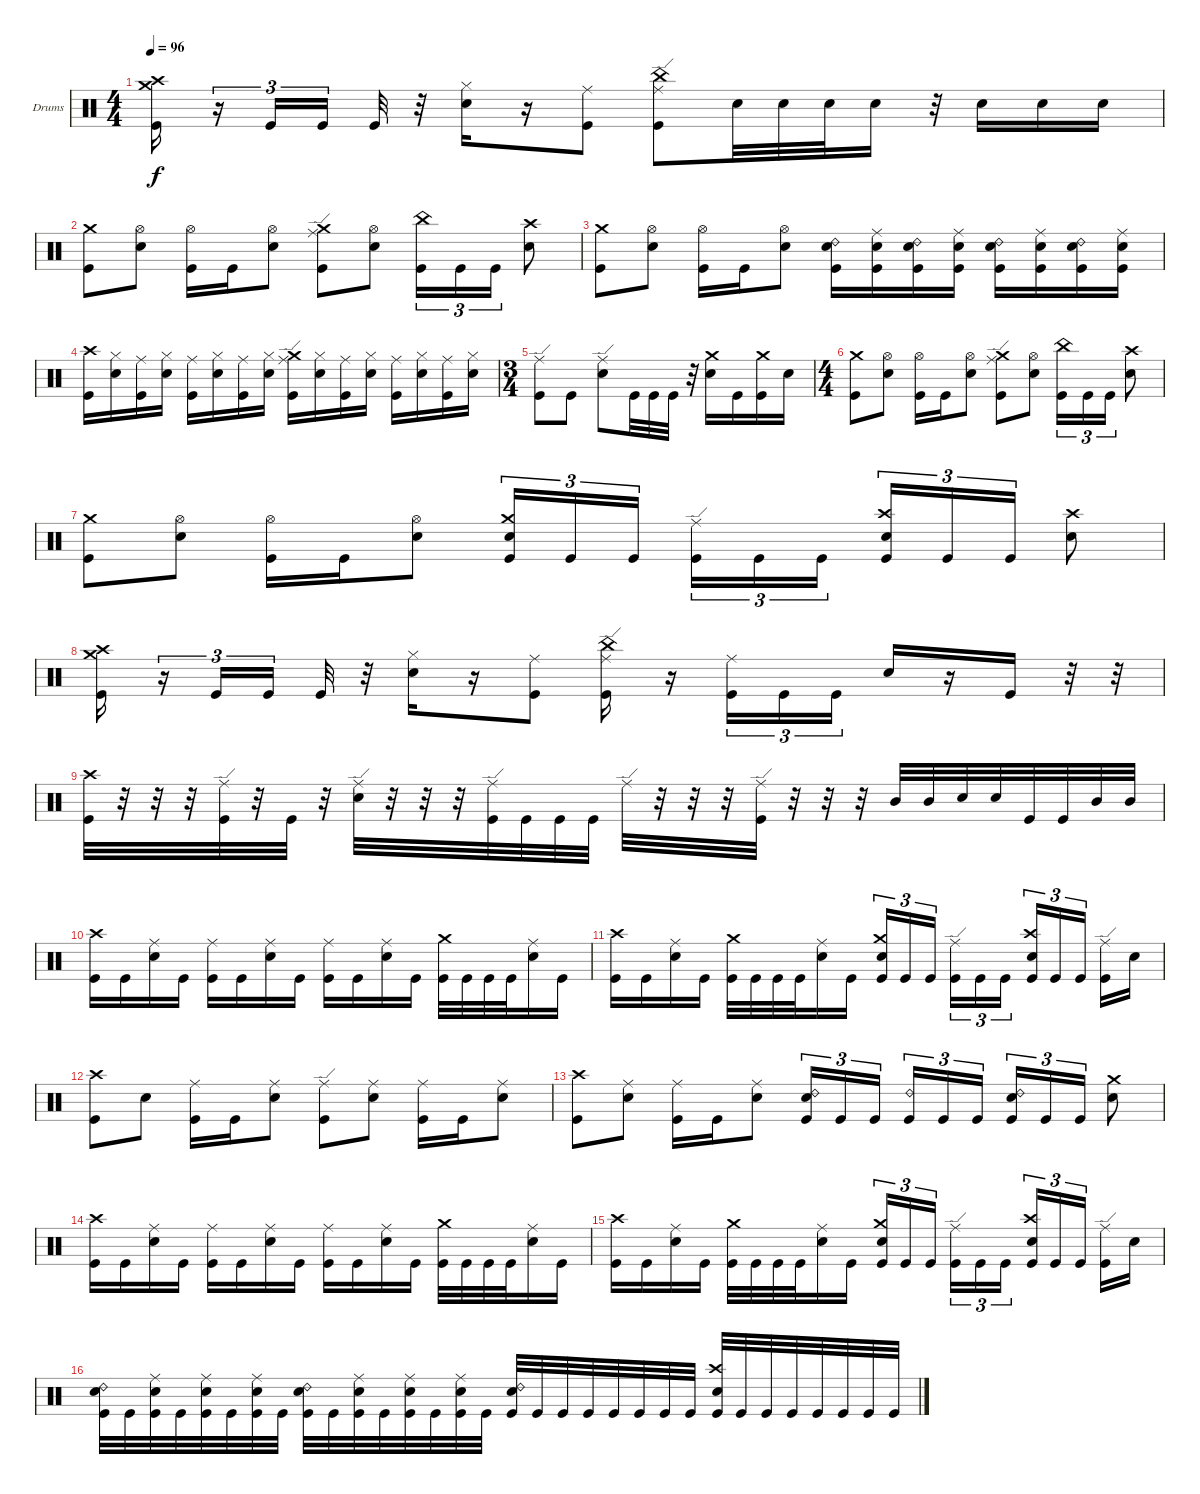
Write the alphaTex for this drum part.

\bracketExtendMode groupsimilarinstruments
\firstSystemTrackNameOrientation horizontal
\otherSystemsTrackNameOrientation horizontal
\track ("Drumkit" "Drums") {instrument percussion}
\staff {score}
\articulation defaults
\ts (4 4)
\tempo 96
\clef neutral
\ks c
("Kick (hit)" "Crash medium (hit)" "Crash high (hit)").16{dy f} r.16{tu (3 2)} "Kick (hit)".16{tu (3 2)} "Kick (hit)".16{tu (3 2)} "Kick (hit)".32 r.32 ("Snare (hit) 2" "Hi-Hat (closed)").16 r.16 ("Kick (hit)" "Ride (middle)").8 ("Kick (hit)" "China (hit)" "Ride (edge)").8 "Snare (hit) 2".32 "Snare (hit) 2".32 "Snare (hit) 2".32 "Snare (hit) 2".16 r.32 "Snare (hit) 2".16 "Snare (hit) 2".16 "Snare (hit) 2".16 |
("Kick (hit)" "Crash medium (hit)").8 ("Hi-Hat (open)" "Snare (hit) 2").8 ("Kick (hit)" "Hi-Hat (open)").16 "Kick (hit)".16 ("Snare (hit) 2" "Hi-Hat (open)").8 ("Kick (hit)" "Crash medium (hit)" "Ride (edge)").8 ("Hi-Hat (open)" "Snare (hit) 2").8 ("Kick (hit)" "China (hit)").16{tu (3 2)} "Kick (hit)".16{tu (3 2)} "Kick (hit)".16{tu (3 2)} ("Snare (hit) 2" "Crash high (hit)").8 |
("Kick (hit)" "Crash medium (hit)").8 ("Hi-Hat (open)" "Snare (hit) 2").8 ("Kick (hit)" "Hi-Hat (open)").16 "Kick (hit)".16 ("Snare (hit) 2" "Hi-Hat (open)").8 ("Kick (hit)" "Snare (hit) 2" "Ride (bell) 2").16 ("Kick (hit)" "Snare (hit) 2" "Ride (middle)").16 ("Kick (hit)" "Snare (hit) 2" "Ride (bell) 2").16 ("Kick (hit)" "Snare (hit) 2" "Ride (middle)").16 ("Kick (hit)" "Snare (hit) 2" "Ride (bell) 2").16 ("Kick (hit)" "Snare (hit) 2" "Ride (middle)").16 ("Kick (hit)" "Snare (hit) 2" "Ride (bell) 2").16 ("Kick (hit)" "Snare (hit) 2" "Ride (middle)").16 |
("Kick (hit)" "Crash high (hit)").16 ("Snare (hit) 2" "Hi-Hat (closed)").16 ("Kick (hit)" "Ride (middle)").16 ("Snare (hit) 2" "Hi-Hat (closed)").16 ("Kick (hit)" "Ride (middle)").16 ("Snare (hit) 2" "Hi-Hat (closed)").16 ("Kick (hit)" "Ride (middle)").16 ("Snare (hit) 2" "Hi-Hat (closed)").16 ("Kick (hit)" "Ride (edge)" "Crash medium (hit)").16 ("Snare (hit) 2" "Hi-Hat (closed)").16 ("Kick (hit)" "Ride (middle)").16 ("Snare (hit) 2" "Hi-Hat (closed)").16 ("Kick (hit)" "Ride (middle)").16 ("Snare (hit) 2" "Hi-Hat (closed)").16 ("Kick (hit)" "Ride (middle)").16 ("Snare (hit) 2" "Hi-Hat (closed)").16 |
\ts (3 4)
("Kick (hit)" "Ride (edge)").8 "Kick (hit)".8 ("Snare (hit) 2" "Ride (edge)").8 "Kick (hit)".32 "Kick (hit)".32 "Kick (hit)".32 r.32 ("Snare (hit) 2" "Crash medium (hit)").16 "Kick (hit)".16 ("Kick (hit)" "Crash medium (hit)").16 "Snare (hit) 2".16 |
\ts (4 4)
("Kick (hit)" "Crash medium (hit)").8 ("Hi-Hat (open)" "Snare (hit) 2").8 ("Kick (hit)" "Hi-Hat (open)").16 "Kick (hit)".16 ("Snare (hit) 2" "Hi-Hat (open)").8 ("Kick (hit)" "Crash medium (hit)" "Ride (edge)").8 ("Hi-Hat (open)" "Snare (hit) 2").8 ("Kick (hit)" "China (hit)").16{tu (3 2)} "Kick (hit)".16{tu (3 2)} "Kick (hit)".16{tu (3 2)} ("Snare (hit) 2" "Crash high (hit)").8 |
("Kick (hit)" "Crash medium (hit)").8 ("Hi-Hat (open)" "Snare (hit) 2").8 ("Kick (hit)" "Hi-Hat (open)").16 "Kick (hit)".16 ("Snare (hit) 2" "Hi-Hat (open)").8 ("Snare (hit) 2" "Kick (hit)" "Crash medium (hit)").16{tu (3 2)} "Kick (hit)".16{tu (3 2)} "Kick (hit)".16{tu (3 2)} ("Kick (hit)" "Ride (edge)").16{tu (3 2)} "Kick (hit)".16{tu (3 2)} "Kick (hit)".16{tu (3 2)} ("Kick (hit)" "Crash high (hit)" "Snare (hit) 2").16{tu (3 2)} "Kick (hit)".16{tu (3 2)} "Kick (hit)".16{tu (3 2)} ("Snare (hit) 2" "Crash high (hit)").8 |
("Kick (hit)" "Crash medium (hit)" "Crash high (hit)").16 r.16{tu (3 2)} "Kick (hit)".16{tu (3 2)} "Kick (hit)".16{tu (3 2)} "Kick (hit)".32 r.32 ("Snare (hit) 2" "Hi-Hat (closed)").16 r.16 ("Kick (hit)" "Ride (middle)").8 ("Kick (hit)" "China (hit)" "Ride (edge)").16 r.16 ("Ride (middle)" "Kick (hit)").16{tu (3 2)} "Kick (hit)".16{tu (3 2)} "Kick (hit)".16{tu (3 2)} "Snare (hit) 2".16 r.16 "Kick (hit)".16 r.32 r.32 |
("Crash high (hit)" "Kick (hit)").32 r.32 r.32 r.32 ("Ride (edge)" "Kick (hit)").32 r.32 "Kick (hit)".32 r.32 ("Ride (edge)" "Snare (hit) 2").32 r.32 r.32 r.32 ("Ride (edge)" "Kick (hit)").32 "Kick (hit)".32 "Kick (hit)".32 "Kick (hit)".32 "Ride (edge)".32 r.32 r.32 r.32 ("Kick (hit)" "Ride (edge)").32 r.32 r.32 r.32 "Mid Tom (hit)".32 "Mid Tom (hit)".32 "Snare (hit) 2".32 "Snare (hit) 2".32 "Kick (hit)".32 "Kick (hit)".32 "Mid Tom (hit)".32 "Mid Tom (hit)".32 |
("Kick (hit)" "Crash high (hit)").16 "Kick (hit)".16 ("Snare (hit) 2" "Ride (middle)").16 "Kick (hit)".16 ("Kick (hit)" "Ride (middle)").16 "Kick (hit)".16 ("Snare (hit) 2" "Ride (middle)").16 "Kick (hit)".16 ("Kick (hit)" "Ride (middle)").16 "Kick (hit)".16 ("Snare (hit) 2" "Ride (middle)").16 "Kick (hit)".16 ("Kick (hit)" "Crash medium (hit)").32 "Kick (hit)".32 "Kick (hit)".32 "Kick (hit)".32 ("Snare (hit) 2" "Ride (middle)").16 "Kick (hit)".16 |
("Kick (hit)" "Crash high (hit)").16 "Kick (hit)".16 ("Snare (hit) 2" "Ride (middle)").16 "Kick (hit)".16 ("Kick (hit)" "Crash medium (hit)").32 "Kick (hit)".32 "Kick (hit)".32 "Kick (hit)".32 ("Snare (hit) 2" "Ride (middle)").16 "Kick (hit)".16 ("Snare (hit) 2" "Kick (hit)" "Crash medium (hit)").16{tu (3 2)} "Kick (hit)".16{tu (3 2)} "Kick (hit)".16{tu (3 2)} ("Kick (hit)" "Ride (edge)").16{tu (3 2)} "Kick (hit)".16{tu (3 2)} "Kick (hit)".16{tu (3 2)} ("Kick (hit)" "Crash high (hit)" "Snare (hit) 2").16{tu (3 2)} "Kick (hit)".16{tu (3 2)} "Kick (hit)".16{tu (3 2)} ("Ride (edge)" "Kick (hit)").16 "Snare (hit) 2".16 |
("Kick (hit)" "Crash high (hit)").8 "Snare (hit) 2".8 ("Ride (middle)" "Kick (hit)").16 "Kick (hit)".16 ("Snare (hit) 2" "Ride (middle)").8 ("Kick (hit)" "Ride (edge)").8 ("Snare (hit) 2" "Ride (middle)").8 ("Ride (middle)" "Kick (hit)").16 "Kick (hit)".16 ("Snare (hit) 2" "Ride (middle)").8 |
("Kick (hit)" "Crash high (hit)").8 ("Snare (hit) 2" "Ride (middle)").8 ("Ride (middle)" "Kick (hit)").16 "Kick (hit)".16 ("Snare (hit) 2" "Ride (middle)").8 ("Snare (hit) 2" "Kick (hit)" "Ride (bell) 2").16{tu (3 2)} "Kick (hit)".16{tu (3 2)} "Kick (hit)".16{tu (3 2)} ("Kick (hit)" "Ride (bell) 2").16{tu (3 2)} "Kick (hit)".16{tu (3 2)} "Kick (hit)".16{tu (3 2)} ("Kick (hit)" "Snare (hit) 2" "Ride (bell) 2").16{tu (3 2)} "Kick (hit)".16{tu (3 2)} "Kick (hit)".16{tu (3 2)} ("Snare (hit) 2" "Crash medium (hit)").8 |
("Kick (hit)" "Crash high (hit)").16 "Kick (hit)".16 ("Snare (hit) 2" "Ride (middle)").16 "Kick (hit)".16 ("Kick (hit)" "Ride (middle)").16 "Kick (hit)".16 ("Snare (hit) 2" "Ride (middle)").16 "Kick (hit)".16 ("Kick (hit)" "Ride (middle)").16 "Kick (hit)".16 ("Snare (hit) 2" "Ride (middle)").16 "Kick (hit)".16 ("Kick (hit)" "Crash medium (hit)").32 "Kick (hit)".32 "Kick (hit)".32 "Kick (hit)".32 ("Snare (hit) 2" "Ride (middle)").16 "Kick (hit)".16 |
("Kick (hit)" "Crash high (hit)").16 "Kick (hit)".16 ("Snare (hit) 2" "Ride (middle)").16 "Kick (hit)".16 ("Kick (hit)" "Crash medium (hit)").32 "Kick (hit)".32 "Kick (hit)".32 "Kick (hit)".32 ("Snare (hit) 2" "Ride (middle)").16 "Kick (hit)".16 ("Snare (hit) 2" "Kick (hit)" "Crash medium (hit)").16{tu (3 2)} "Kick (hit)".16{tu (3 2)} "Kick (hit)".16{tu (3 2)} ("Kick (hit)" "Ride (edge)").16{tu (3 2)} "Kick (hit)".16{tu (3 2)} "Kick (hit)".16{tu (3 2)} ("Kick (hit)" "Crash high (hit)" "Snare (hit) 2").16{tu (3 2)} "Kick (hit)".16{tu (3 2)} "Kick (hit)".16{tu (3 2)} ("Ride (edge)" "Kick (hit)").16 "Snare (hit) 2".16 |
("Kick (hit)" "Snare (hit) 2" "Ride (bell) 2").32 "Kick (hit)".32 ("Kick (hit)" "Snare (hit) 2" "Ride (middle)").32 "Kick (hit)".32 ("Kick (hit)" "Snare (hit) 2" "Ride (middle)").32 "Kick (hit)".32 ("Kick (hit)" "Snare (hit) 2" "Ride (middle)").32 "Kick (hit)".32 ("Kick (hit)" "Snare (hit) 2" "Ride (bell) 2").32 "Kick (hit)".32 ("Kick (hit)" "Snare (hit) 2" "Ride (middle)").32 "Kick (hit)".32 ("Kick (hit)" "Snare (hit) 2" "Ride (middle)").32 "Kick (hit)".32 ("Kick (hit)" "Snare (hit) 2" "Ride (middle)").32 "Kick (hit)".32 ("Kick (hit)" "Snare (hit) 2" "Ride (bell) 2").32 "Kick (hit)".32 "Kick (hit)".32 "Kick (hit)".32 "Kick (hit)".32 "Kick (hit)".32 "Kick (hit)".32 "Kick (hit)".32 ("Kick (hit)" "Snare (hit) 2" "Crash high (hit)").32 "Kick (hit)".32 "Kick (hit)".32 "Kick (hit)".32 "Kick (hit)".32 "Kick (hit)".32 "Kick (hit)".32 "Kick (hit)".32
